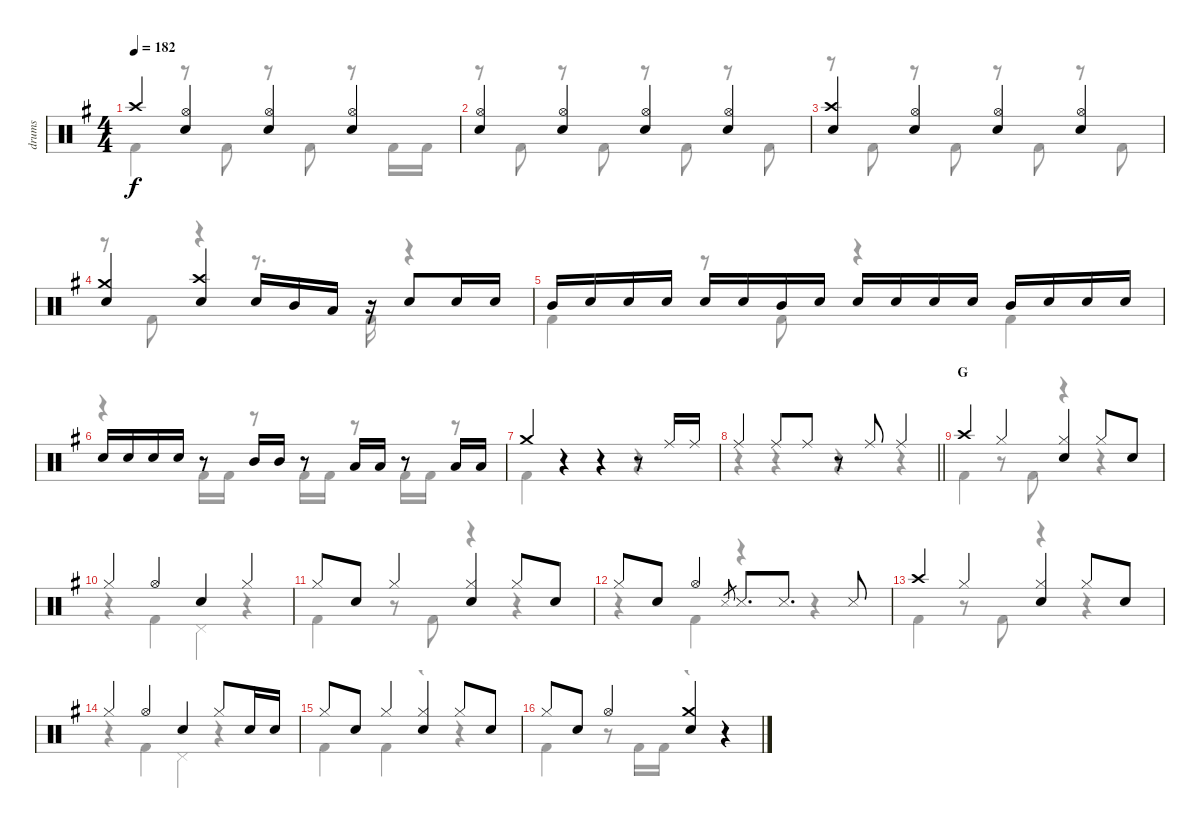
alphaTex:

\track ("drums" "drums") {instrument percussion}
\staff {score}
\articulation defaults
\voice
\ts (4 4)
\tempo 182
\clef neutral
\ks g "Crash high (hit)".4{dy f}
("Hi-Hat (open)" "Snare (hit) 2").4 ("Hi-Hat (open)" "Snare (hit) 2").4 ("Hi-Hat (open)" "Snare (hit) 2").4 |
("Hi-Hat (open)" "Snare (hit) 2").4 ("Hi-Hat (open)" "Snare (hit) 2").4 ("Hi-Hat (open)" "Snare (hit) 2").4 ("Hi-Hat (open)" "Snare (hit) 2").4 |
("Crash high (hit)" "Snare (hit) 2").4 ("Hi-Hat (open)" "Snare (hit) 2").4 ("Hi-Hat (open)" "Snare (hit) 2").4 ("Hi-Hat (open)" "Snare (hit) 2").4 |
("Crash medium (hit)" "Snare (hit) 2").4 ("Crash high (hit)" "Snare (hit) 2").4 "Snare (hit) 2".16 "Mid Tom (hit)".16 "Low Tom (hit)".16 r.16 "Snare (hit) 2".8 "Snare (hit) 2".16 "Snare (hit) 2".16 |
"Mid Tom (hit)".16 "Snare (hit) 2".16 "Snare (hit) 2".16 "Snare (hit) 2".16 "Snare (hit) 2".16 "Snare (hit) 2".16 "Mid Tom (hit)".16 "Snare (hit) 2".16 "Snare (hit) 2".16 "Snare (hit) 2".16 "Snare (hit) 2".16 "Snare (hit) 2".16 "Mid Tom (hit)".16 "Snare (hit) 2".16 "Snare (hit) 2".16 "Snare (hit) 2".16 |
"Snare (hit) 2".16 "Snare (hit) 2".16 "Snare (hit) 2".16 "Snare (hit) 2".16 r.8 "Mid Tom (hit)".16 "Mid Tom (hit)".16 r.8 "Low Tom (hit)".16 "Low Tom (hit)".16 r.8 "Low Floor Tom (hit)".16 "Low Floor Tom (hit)".16 |
"Crash medium (hit)".4 r.4 r.4 r.8 "Ride (middle)".16 "Ride (middle)".16 |
\barLineRight lightlight "Ride (middle)".4 "Ride (middle)".8 "Ride (middle)".8
r.8 "Ride (middle)".8 "Ride (middle)".4 |
\section ("" "G")
"Crash high (hit)".4 "Hi-Hat (closed)".4 ("Hi-Hat (closed)" "Snare (hit) 2").4 "Hi-Hat (closed)".8 "Snare (hit) 2".8 |
"Hi-Hat (closed)".4 "Hi-Hat (open)".4 "Snare (hit) 2".4 "Hi-Hat (closed)".4 |
"Hi-Hat (closed)".8 "Snare (hit) 2".8 "Hi-Hat (closed)".4 ("Hi-Hat (closed)" "Snare (hit) 2").4 "Hi-Hat (closed)".8 "Snare (hit) 2".8 |
"Hi-Hat (closed)".8 "Snare (hit) 2".8 "Hi-Hat (open)".4 "Snare (side stick) 3".8{gr} "Snare (side stick) 3".8{d} "Snare (side stick) 3".8{d} "Snare (side stick) 3".8 |
"Crash high (hit)".4 "Hi-Hat (closed)".4 ("Hi-Hat (closed)" "Snare (hit) 2").4 "Hi-Hat (closed)".8 "Snare (hit) 2".8 |
"Hi-Hat (closed)".4 "Hi-Hat (open)".4 "Snare (hit) 2".4 "Hi-Hat (closed)".8 "Snare (hit) 2".16 "Snare (hit) 2".16 |
"Hi-Hat (closed)".8 "Snare (hit) 2".8 "Hi-Hat (closed)".4 ("Hi-Hat (closed)" "Snare (hit) 2").4 "Hi-Hat (closed)".8 "Snare (hit) 2".8 |
"Hi-Hat (closed)".8 "Snare (hit) 2".8 "Hi-Hat (open)".4 ("Crash medium (hit)" "Snare (hit) 2").4 r.4
\voice
\clef neutral
\ottava regular
\simile none
\ks g "Kick (hit) 2".4{dy f}
r.8 "Kick (hit) 2".8 r.8 "Kick (hit) 2".8 r.8 "Kick (hit) 2".16 "Kick (hit) 2".16 |
r.8 "Kick (hit) 2".8 r.8 "Kick (hit) 2".8 r.8 "Kick (hit) 2".8 r.8 "Kick (hit) 2".8 |
r.8 "Kick (hit) 2".8 r.8 "Kick (hit) 2".8 r.8 "Kick (hit) 2".8 r.8 "Kick (hit) 2".8 |
r.8 "Kick (hit) 2".8 r.4 r.8{d} "Kick (hit) 2".16 r.4 |
"Kick (hit) 2".4 r.8 "Kick (hit) 2".8 r.4 "Kick (hit) 2".4 |
r.4 "Kick (hit) 2".16 "Kick (hit) 2".16 r.8 "Kick (hit) 2".16 "Kick (hit) 2".16 r.8 "Kick (hit) 2".16 "Kick (hit) 2".16 r.8 |
"Kick (hit) 2".4 r.4 r.4 r.4 |
\barLineRight lightlight
r.4 r.4 r.4 r.4 |
"Kick (hit) 2".4 r.8 "Kick (hit) 2".8 r.4 r.4 |
r.4 "Kick (hit) 2".4 "Pedal Hi-Hat (hit)".4 r.4 |
"Kick (hit) 2".4 r.8 "Kick (hit) 2".8 r.4 r.4 |
r.4 "Kick (hit) 2".4 r.4 r.4 |
"Kick (hit) 2".4 r.8 "Kick (hit) 2".8 r.4 r.4 |
r.4 "Kick (hit) 2".4 "Pedal Hi-Hat (hit)".4 r.4 |
"Kick (hit) 2".4 "Kick (hit) 2".4 r.4 r.4 |
"Kick (hit) 2".4 r.8 "Kick (hit) 2".16 "Kick (hit) 2".16 r.4 r.4
